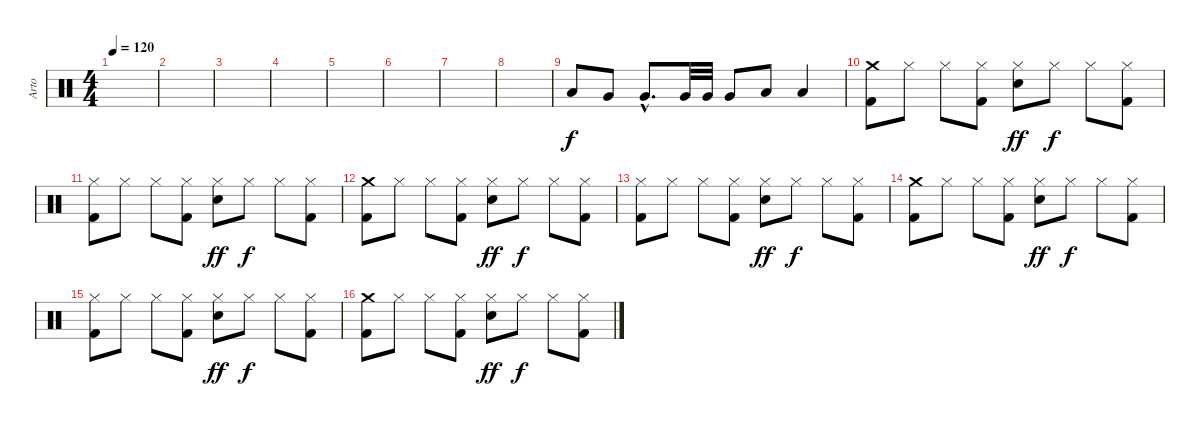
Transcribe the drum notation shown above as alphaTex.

\track ("Arto" "Arto") {instrument percussion}
\staff {score}
\articulation defaults
\ts (4 4)
\tempo 120
\clef neutral
\ks c
|
|
|
|
|
|
|
|
"Low Tom (hit)".8 "Very Low Tom (hit)".8 "Very Low Tom (hit)"{hac}.8{d} "Very Low Tom (hit)".32 "Very Low Tom (hit)".32 "Very Low Tom (hit)".8 "Low Floor Tom (hit)".8 "Low Floor Tom (hit)".4 |
("Crash medium (hit)" "Kick (hit) 2").8{dy f} "Hi-Hat (closed)".8 "Hi-Hat (closed)".8 ("Hi-Hat (closed)" "Kick (hit) 2").8 ("Hi-Hat (closed)" "Snare (hit) 2").8{dy ff} "Hi-Hat (closed)".8{dy f} "Hi-Hat (closed)".8 ("Hi-Hat (closed)" "Kick (hit) 2").8 |
("Hi-Hat (closed)" "Kick (hit) 2").8 "Hi-Hat (closed)".8 "Hi-Hat (closed)".8 ("Hi-Hat (closed)" "Kick (hit) 2").8 ("Hi-Hat (closed)" "Snare (hit) 2").8{dy ff} "Hi-Hat (closed)".8{dy f} "Hi-Hat (closed)".8 ("Hi-Hat (closed)" "Kick (hit) 2").8 |
("Crash medium (hit)" "Kick (hit) 2").8 "Hi-Hat (closed)".8 "Hi-Hat (closed)".8 ("Hi-Hat (closed)" "Kick (hit) 2").8 ("Hi-Hat (closed)" "Snare (hit) 2").8{dy ff} "Hi-Hat (closed)".8{dy f} "Hi-Hat (closed)".8 ("Hi-Hat (closed)" "Kick (hit) 2").8 |
("Hi-Hat (closed)" "Kick (hit) 2").8 "Hi-Hat (closed)".8 "Hi-Hat (closed)".8 ("Hi-Hat (closed)" "Kick (hit) 2").8 ("Hi-Hat (closed)" "Snare (hit) 2").8{dy ff} "Hi-Hat (closed)".8{dy f} "Hi-Hat (closed)".8 ("Hi-Hat (closed)" "Kick (hit) 2").8 |
("Crash medium (hit)" "Kick (hit) 2").8 "Hi-Hat (closed)".8 "Hi-Hat (closed)".8 ("Hi-Hat (closed)" "Kick (hit) 2").8 ("Hi-Hat (closed)" "Snare (hit) 2").8{dy ff} "Hi-Hat (closed)".8{dy f} "Hi-Hat (closed)".8 ("Hi-Hat (closed)" "Kick (hit) 2").8 |
("Hi-Hat (closed)" "Kick (hit) 2").8 "Hi-Hat (closed)".8 "Hi-Hat (closed)".8 ("Hi-Hat (closed)" "Kick (hit) 2").8 ("Hi-Hat (closed)" "Snare (hit) 2").8{dy ff} "Hi-Hat (closed)".8{dy f} "Hi-Hat (closed)".8 ("Hi-Hat (closed)" "Kick (hit) 2").8 |
("Crash medium (hit)" "Kick (hit) 2").8 "Hi-Hat (closed)".8 "Hi-Hat (closed)".8 ("Hi-Hat (closed)" "Kick (hit) 2").8 ("Hi-Hat (closed)" "Snare (hit) 2").8{dy ff} "Hi-Hat (closed)".8{dy f} "Hi-Hat (closed)".8 ("Hi-Hat (closed)" "Kick (hit) 2").8
